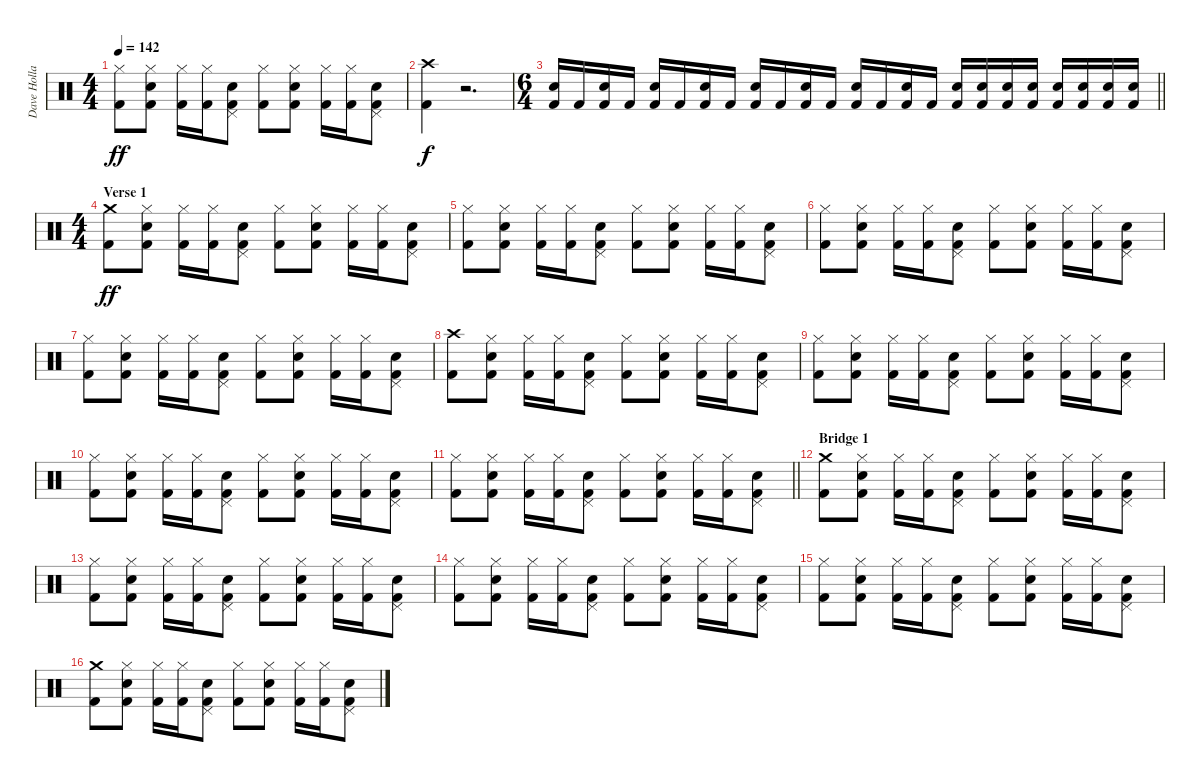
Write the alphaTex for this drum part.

\track ("Dave Holland" "Dave Holla") {instrument percussion}
\staff {score}
\articulation defaults
\ts (4 4)
\tempo 142
\clef neutral
\ks c
("Hi-Hat (closed)" "Kick (hit) 2").8{dy ff} ("Hi-Hat (closed)" "Snare (hit) 2" "Kick (hit) 2").8 ("Hi-Hat (closed)" "Kick (hit) 2").16 ("Hi-Hat (closed)" "Kick (hit) 2").16 ("Pedal Hi-Hat (hit)" "Snare (hit) 2" "Kick (hit) 2").8 ("Hi-Hat (closed)" "Kick (hit) 2").8 ("Hi-Hat (closed)" "Snare (hit) 2" "Kick (hit) 2").8 ("Hi-Hat (closed)" "Kick (hit) 2").16 ("Hi-Hat (closed)" "Kick (hit) 2").16 ("Pedal Hi-Hat (hit)" "Snare (hit) 2" "Kick (hit) 2").8 |
("Crash high (hit)" "Kick (hit) 2").4{dy f} r.2{d} |
\ts (6 4)
\barLineRight lightlight
("Snare (hit) 2" "Kick (hit) 2").16 "Kick (hit) 2".16 ("Snare (hit) 2" "Kick (hit) 2").16 "Kick (hit) 2".16 ("Snare (hit) 2" "Kick (hit) 2").16 "Kick (hit) 2".16 ("Snare (hit) 2" "Kick (hit) 2").16 "Kick (hit) 2".16 ("Snare (hit) 2" "Kick (hit) 2").16 "Kick (hit) 2".16 ("Snare (hit) 2" "Kick (hit) 2").16 "Kick (hit) 2".16 ("Snare (hit) 2" "Kick (hit) 2").16 "Kick (hit) 2".16 ("Snare (hit) 2" "Kick (hit) 2").16 "Kick (hit) 2".16 ("Snare (hit) 2" "Kick (hit) 2").16 ("Snare (hit) 2" "Kick (hit) 2").16 ("Snare (hit) 2" "Kick (hit) 2").16 ("Snare (hit) 2" "Kick (hit) 2").16 ("Snare (hit) 2" "Kick (hit) 2").16 ("Snare (hit) 2" "Kick (hit) 2").16 ("Snare (hit) 2" "Kick (hit) 2").16 ("Snare (hit) 2" "Kick (hit) 2").16 |
\ts (4 4)
\section ("" "Verse 1")
("Crash medium (hit)" "Kick (hit) 2").8{dy ff} ("Hi-Hat (closed)" "Snare (hit) 2" "Kick (hit) 2").8 ("Hi-Hat (closed)" "Kick (hit) 2").16 ("Hi-Hat (closed)" "Kick (hit) 2").16 ("Pedal Hi-Hat (hit)" "Snare (hit) 2" "Kick (hit) 2").8 ("Hi-Hat (closed)" "Kick (hit) 2").8 ("Hi-Hat (closed)" "Snare (hit) 2" "Kick (hit) 2").8 ("Hi-Hat (closed)" "Kick (hit) 2").16 ("Hi-Hat (closed)" "Kick (hit) 2").16 ("Pedal Hi-Hat (hit)" "Snare (hit) 2" "Kick (hit) 2").8 |
("Hi-Hat (closed)" "Kick (hit) 2").8 ("Hi-Hat (closed)" "Snare (hit) 2" "Kick (hit) 2").8 ("Hi-Hat (closed)" "Kick (hit) 2").16 ("Hi-Hat (closed)" "Kick (hit) 2").16 ("Pedal Hi-Hat (hit)" "Snare (hit) 2" "Kick (hit) 2").8 ("Hi-Hat (closed)" "Kick (hit) 2").8 ("Hi-Hat (closed)" "Snare (hit) 2" "Kick (hit) 2").8 ("Hi-Hat (closed)" "Kick (hit) 2").16 ("Hi-Hat (closed)" "Kick (hit) 2").16 ("Pedal Hi-Hat (hit)" "Snare (hit) 2" "Kick (hit) 2").8 |
("Hi-Hat (closed)" "Kick (hit) 2").8 ("Hi-Hat (closed)" "Snare (hit) 2" "Kick (hit) 2").8 ("Hi-Hat (closed)" "Kick (hit) 2").16 ("Hi-Hat (closed)" "Kick (hit) 2").16 ("Pedal Hi-Hat (hit)" "Snare (hit) 2" "Kick (hit) 2").8 ("Hi-Hat (closed)" "Kick (hit) 2").8 ("Hi-Hat (closed)" "Snare (hit) 2" "Kick (hit) 2").8 ("Hi-Hat (closed)" "Kick (hit) 2").16 ("Hi-Hat (closed)" "Kick (hit) 2").16 ("Pedal Hi-Hat (hit)" "Snare (hit) 2" "Kick (hit) 2").8 |
("Hi-Hat (closed)" "Kick (hit) 2").8 ("Hi-Hat (closed)" "Snare (hit) 2" "Kick (hit) 2").8 ("Hi-Hat (closed)" "Kick (hit) 2").16 ("Hi-Hat (closed)" "Kick (hit) 2").16 ("Pedal Hi-Hat (hit)" "Snare (hit) 2" "Kick (hit) 2").8 ("Hi-Hat (closed)" "Kick (hit) 2").8 ("Hi-Hat (closed)" "Snare (hit) 2" "Kick (hit) 2").8 ("Hi-Hat (closed)" "Kick (hit) 2").16 ("Hi-Hat (closed)" "Kick (hit) 2").16 ("Pedal Hi-Hat (hit)" "Snare (hit) 2" "Kick (hit) 2").8 |
("Crash high (hit)" "Kick (hit) 2").8 ("Hi-Hat (closed)" "Snare (hit) 2" "Kick (hit) 2").8 ("Hi-Hat (closed)" "Kick (hit) 2").16 ("Hi-Hat (closed)" "Kick (hit) 2").16 ("Pedal Hi-Hat (hit)" "Snare (hit) 2" "Kick (hit) 2").8 ("Hi-Hat (closed)" "Kick (hit) 2").8 ("Hi-Hat (closed)" "Snare (hit) 2" "Kick (hit) 2").8 ("Hi-Hat (closed)" "Kick (hit) 2").16 ("Hi-Hat (closed)" "Kick (hit) 2").16 ("Pedal Hi-Hat (hit)" "Snare (hit) 2" "Kick (hit) 2").8 |
("Hi-Hat (closed)" "Kick (hit) 2").8 ("Hi-Hat (closed)" "Snare (hit) 2" "Kick (hit) 2").8 ("Hi-Hat (closed)" "Kick (hit) 2").16 ("Hi-Hat (closed)" "Kick (hit) 2").16 ("Pedal Hi-Hat (hit)" "Snare (hit) 2" "Kick (hit) 2").8 ("Hi-Hat (closed)" "Kick (hit) 2").8 ("Hi-Hat (closed)" "Snare (hit) 2" "Kick (hit) 2").8 ("Hi-Hat (closed)" "Kick (hit) 2").16 ("Hi-Hat (closed)" "Kick (hit) 2").16 ("Pedal Hi-Hat (hit)" "Snare (hit) 2" "Kick (hit) 2").8 |
("Hi-Hat (closed)" "Kick (hit) 2").8 ("Hi-Hat (closed)" "Snare (hit) 2" "Kick (hit) 2").8 ("Hi-Hat (closed)" "Kick (hit) 2").16 ("Hi-Hat (closed)" "Kick (hit) 2").16 ("Pedal Hi-Hat (hit)" "Snare (hit) 2" "Kick (hit) 2").8 ("Hi-Hat (closed)" "Kick (hit) 2").8 ("Hi-Hat (closed)" "Snare (hit) 2" "Kick (hit) 2").8 ("Hi-Hat (closed)" "Kick (hit) 2").16 ("Hi-Hat (closed)" "Kick (hit) 2").16 ("Pedal Hi-Hat (hit)" "Snare (hit) 2" "Kick (hit) 2").8 |
\barLineRight lightlight
("Hi-Hat (closed)" "Kick (hit) 2").8 ("Hi-Hat (closed)" "Snare (hit) 2" "Kick (hit) 2").8 ("Hi-Hat (closed)" "Kick (hit) 2").16 ("Hi-Hat (closed)" "Kick (hit) 2").16 ("Pedal Hi-Hat (hit)" "Snare (hit) 2" "Kick (hit) 2").8 ("Hi-Hat (closed)" "Kick (hit) 2").8 ("Hi-Hat (closed)" "Snare (hit) 2" "Kick (hit) 2").8 ("Hi-Hat (closed)" "Kick (hit) 2").16 ("Hi-Hat (closed)" "Kick (hit) 2").16 ("Pedal Hi-Hat (hit)" "Snare (hit) 2" "Kick (hit) 2").8 |
\section ("" "Bridge 1")
("Crash medium (hit)" "Kick (hit) 2").8 ("Hi-Hat (closed)" "Snare (hit) 2" "Kick (hit) 2").8 ("Hi-Hat (closed)" "Kick (hit) 2").16 ("Hi-Hat (closed)" "Kick (hit) 2").16 ("Pedal Hi-Hat (hit)" "Snare (hit) 2" "Kick (hit) 2").8 ("Hi-Hat (closed)" "Kick (hit) 2").8 ("Hi-Hat (closed)" "Snare (hit) 2" "Kick (hit) 2").8 ("Hi-Hat (closed)" "Kick (hit) 2").16 ("Hi-Hat (closed)" "Kick (hit) 2").16 ("Pedal Hi-Hat (hit)" "Snare (hit) 2" "Kick (hit) 2").8 |
("Hi-Hat (closed)" "Kick (hit) 2").8 ("Hi-Hat (closed)" "Snare (hit) 2" "Kick (hit) 2").8 ("Hi-Hat (closed)" "Kick (hit) 2").16 ("Hi-Hat (closed)" "Kick (hit) 2").16 ("Pedal Hi-Hat (hit)" "Snare (hit) 2" "Kick (hit) 2").8 ("Hi-Hat (closed)" "Kick (hit) 2").8 ("Hi-Hat (closed)" "Snare (hit) 2" "Kick (hit) 2").8 ("Hi-Hat (closed)" "Kick (hit) 2").16 ("Hi-Hat (closed)" "Kick (hit) 2").16 ("Pedal Hi-Hat (hit)" "Snare (hit) 2" "Kick (hit) 2").8 |
("Hi-Hat (closed)" "Kick (hit) 2").8 ("Hi-Hat (closed)" "Snare (hit) 2" "Kick (hit) 2").8 ("Hi-Hat (closed)" "Kick (hit) 2").16 ("Hi-Hat (closed)" "Kick (hit) 2").16 ("Pedal Hi-Hat (hit)" "Snare (hit) 2" "Kick (hit) 2").8 ("Hi-Hat (closed)" "Kick (hit) 2").8 ("Hi-Hat (closed)" "Snare (hit) 2" "Kick (hit) 2").8 ("Hi-Hat (closed)" "Kick (hit) 2").16 ("Hi-Hat (closed)" "Kick (hit) 2").16 ("Pedal Hi-Hat (hit)" "Snare (hit) 2" "Kick (hit) 2").8 |
("Hi-Hat (closed)" "Kick (hit) 2").8 ("Hi-Hat (closed)" "Snare (hit) 2" "Kick (hit) 2").8 ("Hi-Hat (closed)" "Kick (hit) 2").16 ("Hi-Hat (closed)" "Kick (hit) 2").16 ("Pedal Hi-Hat (hit)" "Snare (hit) 2" "Kick (hit) 2").8 ("Hi-Hat (closed)" "Kick (hit) 2").8 ("Hi-Hat (closed)" "Snare (hit) 2" "Kick (hit) 2").8 ("Hi-Hat (closed)" "Kick (hit) 2").16 ("Hi-Hat (closed)" "Kick (hit) 2").16 ("Pedal Hi-Hat (hit)" "Snare (hit) 2" "Kick (hit) 2").8 |
("Crash medium (hit)" "Kick (hit) 2").8 ("Hi-Hat (closed)" "Snare (hit) 2" "Kick (hit) 2").8 ("Hi-Hat (closed)" "Kick (hit) 2").16 ("Hi-Hat (closed)" "Kick (hit) 2").16 ("Pedal Hi-Hat (hit)" "Snare (hit) 2" "Kick (hit) 2").8 ("Hi-Hat (closed)" "Kick (hit) 2").8 ("Hi-Hat (closed)" "Snare (hit) 2" "Kick (hit) 2").8 ("Hi-Hat (closed)" "Kick (hit) 2").16 ("Hi-Hat (closed)" "Kick (hit) 2").16 ("Pedal Hi-Hat (hit)" "Snare (hit) 2" "Kick (hit) 2").8
